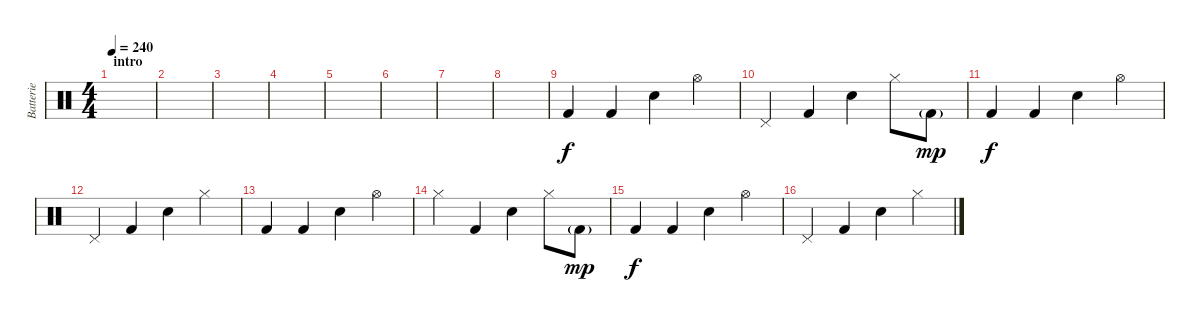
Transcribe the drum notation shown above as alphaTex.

\track ("Batterie" "Batterie") {instrument percussion}
\staff {score}
\articulation defaults
\ts (4 4)
\section ("" "intro")
\tempo 240
\clef neutral
\ks c
|
|
|
|
|
|
|
|
"Kick (hit) 2".4 "Kick (hit) 2".4 "Snare (hit) 2".4 "Hi-Hat (open)".4 |
"Pedal Hi-Hat (hit)".4 "Kick (hit) 2".4 "Snare (hit) 2".4 "Hi-Hat (closed)".8 "Kick (hit) 2"{g}.8{dy mp} |
"Kick (hit) 2".4{dy f} "Kick (hit) 2".4 "Snare (hit) 2".4 "Hi-Hat (open)".4 |
"Pedal Hi-Hat (hit)".4 "Kick (hit) 2".4 "Snare (hit) 2".4 "Hi-Hat (closed)".4 |
"Kick (hit) 2".4 "Kick (hit) 2".4 "Snare (hit) 2".4 "Hi-Hat (open)".4 |
"Hi-Hat (closed)".4 "Kick (hit) 2".4 "Snare (hit) 2".4 "Hi-Hat (closed)".8 "Kick (hit) 2"{g}.8{dy mp} |
"Kick (hit) 2".4{dy f} "Kick (hit) 2".4 "Snare (hit) 2".4 "Hi-Hat (open)".4 |
"Pedal Hi-Hat (hit)".4 "Kick (hit) 2".4 "Snare (hit) 2".4 "Hi-Hat (closed)".4
